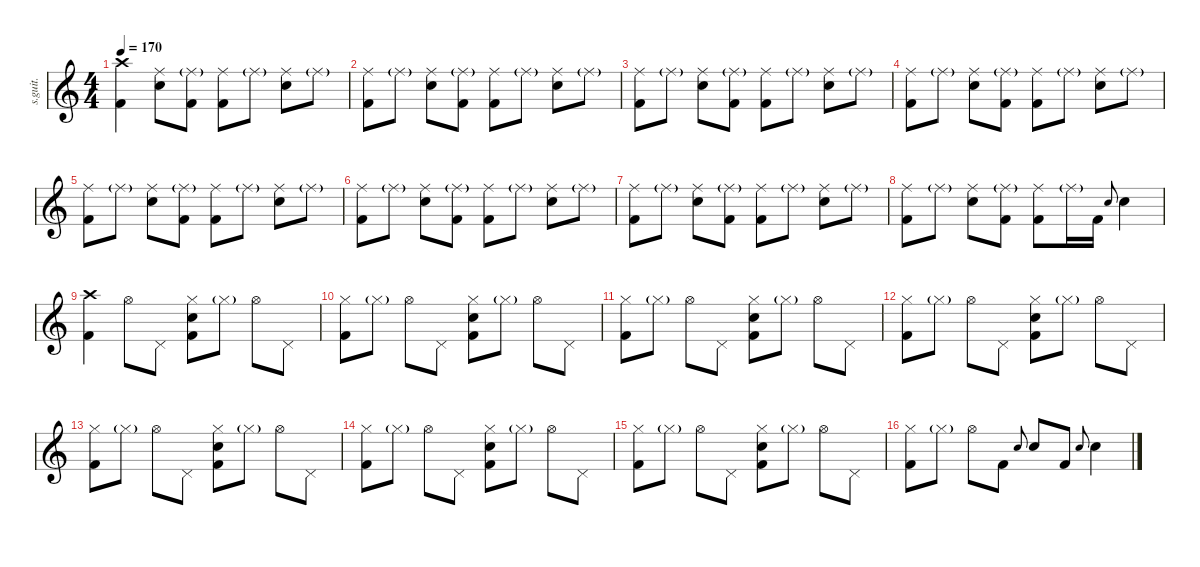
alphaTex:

\defaultSystemsLayout 4
\hideDynamics
\bracketExtendMode nobrackets
\track ("Drumkit" "s.guit.") {instrument percussion}
\staff {score}
\articulation defaults
\ts (4 4)
\tempo 170
\clef g2
\ks c
("Crash high (hit)" "Kick (hit) 2").4{lyrics (0 "") lyrics (1 "") lyrics (2 "") lyrics (3 "") lyrics (4 "") dy ff} ("Ride (middle)" "Snare (hit) 2").8{lyrics (0 "") lyrics (1 "") lyrics (2 "") lyrics (3 "") lyrics (4 "")} ("Ride (middle)"{g} "Kick (hit) 2").8{lyrics (0 "") lyrics (1 "") lyrics (2 "") lyrics (3 "") lyrics (4 "")} ("Ride (middle)" "Kick (hit) 2").8{lyrics (0 "") lyrics (1 "") lyrics (2 "") lyrics (3 "") lyrics (4 "")} "Ride (middle)"{g}.8{lyrics (0 "") lyrics (1 "") lyrics (2 "") lyrics (3 "") lyrics (4 "")} ("Ride (middle)" "Snare (hit) 2").8{lyrics (0 "") lyrics (1 "") lyrics (2 "") lyrics (3 "") lyrics (4 "")} "Ride (middle)"{g}.8{lyrics (0 "") lyrics (1 "") lyrics (2 "") lyrics (3 "") lyrics (4 "")} |
("Ride (middle)" "Kick (hit) 2").8{lyrics (0 "") lyrics (1 "") lyrics (2 "") lyrics (3 "") lyrics (4 "")} "Ride (middle)"{g}.8{lyrics (0 "") lyrics (1 "") lyrics (2 "") lyrics (3 "") lyrics (4 "")} ("Ride (middle)" "Snare (hit) 2").8{lyrics (0 "") lyrics (1 "") lyrics (2 "") lyrics (3 "") lyrics (4 "")} ("Ride (middle)"{g} "Kick (hit) 2").8{lyrics (0 "") lyrics (1 "") lyrics (2 "") lyrics (3 "") lyrics (4 "")} ("Ride (middle)" "Kick (hit) 2").8{lyrics (0 "") lyrics (1 "") lyrics (2 "") lyrics (3 "") lyrics (4 "")} "Ride (middle)"{g}.8{lyrics (0 "") lyrics (1 "") lyrics (2 "") lyrics (3 "") lyrics (4 "")} ("Ride (middle)" "Snare (hit) 2").8{lyrics (0 "") lyrics (1 "") lyrics (2 "") lyrics (3 "") lyrics (4 "")} "Ride (middle)"{g}.8{lyrics (0 "") lyrics (1 "") lyrics (2 "") lyrics (3 "") lyrics (4 "")} |
("Ride (middle)" "Kick (hit) 2").8{lyrics (0 "") lyrics (1 "") lyrics (2 "") lyrics (3 "") lyrics (4 "")} "Ride (middle)"{g}.8{lyrics (0 "") lyrics (1 "") lyrics (2 "") lyrics (3 "") lyrics (4 "")} ("Ride (middle)" "Snare (hit) 2").8{lyrics (0 "") lyrics (1 "") lyrics (2 "") lyrics (3 "") lyrics (4 "")} ("Ride (middle)"{g} "Kick (hit) 2").8{lyrics (0 "") lyrics (1 "") lyrics (2 "") lyrics (3 "") lyrics (4 "")} ("Ride (middle)" "Kick (hit) 2").8{lyrics (0 "") lyrics (1 "") lyrics (2 "") lyrics (3 "") lyrics (4 "")} "Ride (middle)"{g}.8{lyrics (0 "") lyrics (1 "") lyrics (2 "") lyrics (3 "") lyrics (4 "")} ("Ride (middle)" "Snare (hit) 2").8{lyrics (0 "") lyrics (1 "") lyrics (2 "") lyrics (3 "") lyrics (4 "")} "Ride (middle)"{g}.8{lyrics (0 "") lyrics (1 "") lyrics (2 "") lyrics (3 "") lyrics (4 "")} |
("Ride (middle)" "Kick (hit) 2").8{lyrics (0 "") lyrics (1 "") lyrics (2 "") lyrics (3 "") lyrics (4 "")} "Ride (middle)"{g}.8{lyrics (0 "") lyrics (1 "") lyrics (2 "") lyrics (3 "") lyrics (4 "")} ("Ride (middle)" "Snare (hit) 2").8{lyrics (0 "") lyrics (1 "") lyrics (2 "") lyrics (3 "") lyrics (4 "")} ("Ride (middle)"{g} "Kick (hit) 2").8{lyrics (0 "") lyrics (1 "") lyrics (2 "") lyrics (3 "") lyrics (4 "")} ("Ride (middle)" "Kick (hit) 2").8{lyrics (0 "") lyrics (1 "") lyrics (2 "") lyrics (3 "") lyrics (4 "")} "Ride (middle)"{g}.8{lyrics (0 "") lyrics (1 "") lyrics (2 "") lyrics (3 "") lyrics (4 "")} ("Ride (middle)" "Snare (hit) 2").8{lyrics (0 "") lyrics (1 "") lyrics (2 "") lyrics (3 "") lyrics (4 "")} "Ride (middle)"{g}.8{lyrics (0 "") lyrics (1 "") lyrics (2 "") lyrics (3 "") lyrics (4 "")} |
("Ride (middle)" "Kick (hit) 2").8{lyrics (0 "") lyrics (1 "") lyrics (2 "") lyrics (3 "") lyrics (4 "")} "Ride (middle)"{g}.8{lyrics (0 "") lyrics (1 "") lyrics (2 "") lyrics (3 "") lyrics (4 "")} ("Ride (middle)" "Snare (hit) 2").8{lyrics (0 "") lyrics (1 "") lyrics (2 "") lyrics (3 "") lyrics (4 "")} ("Ride (middle)"{g} "Kick (hit) 2").8{lyrics (0 "") lyrics (1 "") lyrics (2 "") lyrics (3 "") lyrics (4 "")} ("Ride (middle)" "Kick (hit) 2").8{lyrics (0 "") lyrics (1 "") lyrics (2 "") lyrics (3 "") lyrics (4 "")} "Ride (middle)"{g}.8{lyrics (0 "") lyrics (1 "") lyrics (2 "") lyrics (3 "") lyrics (4 "")} ("Ride (middle)" "Snare (hit) 2").8{lyrics (0 "") lyrics (1 "") lyrics (2 "") lyrics (3 "") lyrics (4 "")} "Ride (middle)"{g}.8{lyrics (0 "") lyrics (1 "") lyrics (2 "") lyrics (3 "") lyrics (4 "")} |
("Ride (middle)" "Kick (hit) 2").8{lyrics (0 "") lyrics (1 "") lyrics (2 "") lyrics (3 "") lyrics (4 "")} "Ride (middle)"{g}.8{lyrics (0 "") lyrics (1 "") lyrics (2 "") lyrics (3 "") lyrics (4 "")} ("Ride (middle)" "Snare (hit) 2").8{lyrics (0 "") lyrics (1 "") lyrics (2 "") lyrics (3 "") lyrics (4 "")} ("Ride (middle)"{g} "Kick (hit) 2").8{lyrics (0 "") lyrics (1 "") lyrics (2 "") lyrics (3 "") lyrics (4 "")} ("Ride (middle)" "Kick (hit) 2").8{lyrics (0 "") lyrics (1 "") lyrics (2 "") lyrics (3 "") lyrics (4 "")} "Ride (middle)"{g}.8{lyrics (0 "") lyrics (1 "") lyrics (2 "") lyrics (3 "") lyrics (4 "")} ("Ride (middle)" "Snare (hit) 2").8{lyrics (0 "") lyrics (1 "") lyrics (2 "") lyrics (3 "") lyrics (4 "")} "Ride (middle)"{g}.8{lyrics (0 "") lyrics (1 "") lyrics (2 "") lyrics (3 "") lyrics (4 "")} |
("Ride (middle)" "Kick (hit) 2").8{lyrics (0 "") lyrics (1 "") lyrics (2 "") lyrics (3 "") lyrics (4 "")} "Ride (middle)"{g}.8{lyrics (0 "") lyrics (1 "") lyrics (2 "") lyrics (3 "") lyrics (4 "")} ("Ride (middle)" "Snare (hit) 2").8{lyrics (0 "") lyrics (1 "") lyrics (2 "") lyrics (3 "") lyrics (4 "")} ("Ride (middle)"{g} "Kick (hit) 2").8{lyrics (0 "") lyrics (1 "") lyrics (2 "") lyrics (3 "") lyrics (4 "")} ("Ride (middle)" "Kick (hit) 2").8{lyrics (0 "") lyrics (1 "") lyrics (2 "") lyrics (3 "") lyrics (4 "")} "Ride (middle)"{g}.8{lyrics (0 "") lyrics (1 "") lyrics (2 "") lyrics (3 "") lyrics (4 "")} ("Ride (middle)" "Snare (hit) 2").8{lyrics (0 "") lyrics (1 "") lyrics (2 "") lyrics (3 "") lyrics (4 "")} "Ride (middle)"{g}.8{lyrics (0 "") lyrics (1 "") lyrics (2 "") lyrics (3 "") lyrics (4 "")} |
("Ride (middle)" "Kick (hit) 2").8{lyrics (0 "") lyrics (1 "") lyrics (2 "") lyrics (3 "") lyrics (4 "")} "Ride (middle)"{g}.8{lyrics (0 "") lyrics (1 "") lyrics (2 "") lyrics (3 "") lyrics (4 "")} ("Ride (middle)" "Snare (hit) 2").8{lyrics (0 "") lyrics (1 "") lyrics (2 "") lyrics (3 "") lyrics (4 "")} ("Ride (middle)"{g} "Kick (hit) 2").8{lyrics (0 "") lyrics (1 "") lyrics (2 "") lyrics (3 "") lyrics (4 "")} ("Ride (middle)" "Kick (hit) 2").8{lyrics (0 "") lyrics (1 "") lyrics (2 "") lyrics (3 "") lyrics (4 "")} "Ride (middle)"{g}.16{lyrics (0 "") lyrics (1 "") lyrics (2 "") lyrics (3 "") lyrics (4 "")} "Kick (hit) 2".16{lyrics (0 "") lyrics (1 "") lyrics (2 "") lyrics (3 "") lyrics (4 "")} "Snare (hit) 2".8{lyrics (0 "") lyrics (1 "") lyrics (2 "") lyrics (3 "") lyrics (4 "") gr onbeat} "Snare (hit) 2".4{lyrics (0 "") lyrics (1 "") lyrics (2 "") lyrics (3 "") lyrics (4 "")} |
("Crash high (hit)" "Kick (hit) 2").4{lyrics (0 "") lyrics (1 "") lyrics (2 "") lyrics (3 "") lyrics (4 "")} "Hi-Hat (open)".8{lyrics (0 "") lyrics (1 "") lyrics (2 "") lyrics (3 "") lyrics (4 "")} "Pedal Hi-Hat (hit)".8{lyrics (0 "") lyrics (1 "") lyrics (2 "") lyrics (3 "") lyrics (4 "")} ("Snare (hit) 2" "Hi-Hat (closed)" "Kick (hit) 2").8{lyrics (0 "") lyrics (1 "") lyrics (2 "") lyrics (3 "") lyrics (4 "")} "Hi-Hat (closed)"{g}.8{lyrics (0 "") lyrics (1 "") lyrics (2 "") lyrics (3 "") lyrics (4 "")} "Hi-Hat (open)".8{lyrics (0 "") lyrics (1 "") lyrics (2 "") lyrics (3 "") lyrics (4 "")} "Pedal Hi-Hat (hit)".8{lyrics (0 "") lyrics (1 "") lyrics (2 "") lyrics (3 "") lyrics (4 "")} |
("Hi-Hat (closed)" "Kick (hit) 2").8{lyrics (0 "") lyrics (1 "") lyrics (2 "") lyrics (3 "") lyrics (4 "")} "Hi-Hat (closed)"{g}.8{lyrics (0 "") lyrics (1 "") lyrics (2 "") lyrics (3 "") lyrics (4 "")} "Hi-Hat (open)".8{lyrics (0 "") lyrics (1 "") lyrics (2 "") lyrics (3 "") lyrics (4 "")} "Pedal Hi-Hat (hit)".8{lyrics (0 "") lyrics (1 "") lyrics (2 "") lyrics (3 "") lyrics (4 "")} ("Snare (hit) 2" "Hi-Hat (closed)" "Kick (hit) 2").8{lyrics (0 "") lyrics (1 "") lyrics (2 "") lyrics (3 "") lyrics (4 "")} "Hi-Hat (closed)"{g}.8{lyrics (0 "") lyrics (1 "") lyrics (2 "") lyrics (3 "") lyrics (4 "")} "Hi-Hat (open)".8{lyrics (0 "") lyrics (1 "") lyrics (2 "") lyrics (3 "") lyrics (4 "")} "Pedal Hi-Hat (hit)".8{lyrics (0 "") lyrics (1 "") lyrics (2 "") lyrics (3 "") lyrics (4 "")} |
("Hi-Hat (closed)" "Kick (hit) 2").8{lyrics (0 "") lyrics (1 "") lyrics (2 "") lyrics (3 "") lyrics (4 "")} "Hi-Hat (closed)"{g}.8{lyrics (0 "") lyrics (1 "") lyrics (2 "") lyrics (3 "") lyrics (4 "")} "Hi-Hat (open)".8{lyrics (0 "") lyrics (1 "") lyrics (2 "") lyrics (3 "") lyrics (4 "")} "Pedal Hi-Hat (hit)".8{lyrics (0 "") lyrics (1 "") lyrics (2 "") lyrics (3 "") lyrics (4 "")} ("Snare (hit) 2" "Hi-Hat (closed)" "Kick (hit) 2").8{lyrics (0 "") lyrics (1 "") lyrics (2 "") lyrics (3 "") lyrics (4 "")} "Hi-Hat (closed)"{g}.8{lyrics (0 "") lyrics (1 "") lyrics (2 "") lyrics (3 "") lyrics (4 "")} "Hi-Hat (open)".8{lyrics (0 "") lyrics (1 "") lyrics (2 "") lyrics (3 "") lyrics (4 "")} "Pedal Hi-Hat (hit)".8{lyrics (0 "") lyrics (1 "") lyrics (2 "") lyrics (3 "") lyrics (4 "")} |
("Hi-Hat (closed)" "Kick (hit) 2").8{lyrics (0 "") lyrics (1 "") lyrics (2 "") lyrics (3 "") lyrics (4 "")} "Hi-Hat (closed)"{g}.8{lyrics (0 "") lyrics (1 "") lyrics (2 "") lyrics (3 "") lyrics (4 "")} "Hi-Hat (open)".8{lyrics (0 "") lyrics (1 "") lyrics (2 "") lyrics (3 "") lyrics (4 "")} "Pedal Hi-Hat (hit)".8{lyrics (0 "") lyrics (1 "") lyrics (2 "") lyrics (3 "") lyrics (4 "")} ("Snare (hit) 2" "Hi-Hat (closed)" "Kick (hit) 2").8{lyrics (0 "") lyrics (1 "") lyrics (2 "") lyrics (3 "") lyrics (4 "")} "Hi-Hat (closed)"{g}.8{lyrics (0 "") lyrics (1 "") lyrics (2 "") lyrics (3 "") lyrics (4 "")} "Hi-Hat (open)".8{lyrics (0 "") lyrics (1 "") lyrics (2 "") lyrics (3 "") lyrics (4 "")} "Pedal Hi-Hat (hit)".8{lyrics (0 "") lyrics (1 "") lyrics (2 "") lyrics (3 "") lyrics (4 "")} |
("Hi-Hat (closed)" "Kick (hit) 2").8{lyrics (0 "") lyrics (1 "") lyrics (2 "") lyrics (3 "") lyrics (4 "")} "Hi-Hat (closed)"{g}.8{lyrics (0 "") lyrics (1 "") lyrics (2 "") lyrics (3 "") lyrics (4 "")} "Hi-Hat (open)".8{lyrics (0 "") lyrics (1 "") lyrics (2 "") lyrics (3 "") lyrics (4 "")} "Pedal Hi-Hat (hit)".8{lyrics (0 "") lyrics (1 "") lyrics (2 "") lyrics (3 "") lyrics (4 "")} ("Snare (hit) 2" "Hi-Hat (closed)" "Kick (hit) 2").8{lyrics (0 "") lyrics (1 "") lyrics (2 "") lyrics (3 "") lyrics (4 "")} "Hi-Hat (closed)"{g}.8{lyrics (0 "") lyrics (1 "") lyrics (2 "") lyrics (3 "") lyrics (4 "")} "Hi-Hat (open)".8{lyrics (0 "") lyrics (1 "") lyrics (2 "") lyrics (3 "") lyrics (4 "")} "Pedal Hi-Hat (hit)".8{lyrics (0 "") lyrics (1 "") lyrics (2 "") lyrics (3 "") lyrics (4 "")} |
("Hi-Hat (closed)" "Kick (hit) 2").8{lyrics (0 "") lyrics (1 "") lyrics (2 "") lyrics (3 "") lyrics (4 "")} "Hi-Hat (closed)"{g}.8{lyrics (0 "") lyrics (1 "") lyrics (2 "") lyrics (3 "") lyrics (4 "")} "Hi-Hat (open)".8{lyrics (0 "") lyrics (1 "") lyrics (2 "") lyrics (3 "") lyrics (4 "")} "Pedal Hi-Hat (hit)".8{lyrics (0 "") lyrics (1 "") lyrics (2 "") lyrics (3 "") lyrics (4 "")} ("Snare (hit) 2" "Hi-Hat (closed)" "Kick (hit) 2").8{lyrics (0 "") lyrics (1 "") lyrics (2 "") lyrics (3 "") lyrics (4 "")} "Hi-Hat (closed)"{g}.8{lyrics (0 "") lyrics (1 "") lyrics (2 "") lyrics (3 "") lyrics (4 "")} "Hi-Hat (open)".8{lyrics (0 "") lyrics (1 "") lyrics (2 "") lyrics (3 "") lyrics (4 "")} "Pedal Hi-Hat (hit)".8{lyrics (0 "") lyrics (1 "") lyrics (2 "") lyrics (3 "") lyrics (4 "")} |
("Hi-Hat (closed)" "Kick (hit) 2").8{lyrics (0 "") lyrics (1 "") lyrics (2 "") lyrics (3 "") lyrics (4 "")} "Hi-Hat (closed)"{g}.8{lyrics (0 "") lyrics (1 "") lyrics (2 "") lyrics (3 "") lyrics (4 "")} "Hi-Hat (open)".8{lyrics (0 "") lyrics (1 "") lyrics (2 "") lyrics (3 "") lyrics (4 "")} "Pedal Hi-Hat (hit)".8{lyrics (0 "") lyrics (1 "") lyrics (2 "") lyrics (3 "") lyrics (4 "")} ("Snare (hit) 2" "Hi-Hat (closed)" "Kick (hit) 2").8{lyrics (0 "") lyrics (1 "") lyrics (2 "") lyrics (3 "") lyrics (4 "")} "Hi-Hat (closed)"{g}.8{lyrics (0 "") lyrics (1 "") lyrics (2 "") lyrics (3 "") lyrics (4 "")} "Hi-Hat (open)".8{lyrics (0 "") lyrics (1 "") lyrics (2 "") lyrics (3 "") lyrics (4 "")} "Pedal Hi-Hat (hit)".8{lyrics (0 "") lyrics (1 "") lyrics (2 "") lyrics (3 "") lyrics (4 "")} |
("Hi-Hat (closed)" "Kick (hit) 2").8{lyrics (0 "") lyrics (1 "") lyrics (2 "") lyrics (3 "") lyrics (4 "")} "Hi-Hat (closed)"{g}.8{lyrics (0 "") lyrics (1 "") lyrics (2 "") lyrics (3 "") lyrics (4 "")} "Hi-Hat (open)".8{lyrics (0 "") lyrics (1 "") lyrics (2 "") lyrics (3 "") lyrics (4 "")} "Kick (hit) 2".8{lyrics (0 "") lyrics (1 "") lyrics (2 "") lyrics (3 "") lyrics (4 "")} "Snare (hit) 2".8{lyrics (0 "") lyrics (1 "") lyrics (2 "") lyrics (3 "") lyrics (4 "") gr onbeat} "Snare (hit) 2".8{lyrics (0 "") lyrics (1 "") lyrics (2 "") lyrics (3 "") lyrics (4 "")} "Kick (hit) 2".8{lyrics (0 "") lyrics (1 "") lyrics (2 "") lyrics (3 "") lyrics (4 "")} "Snare (hit) 2".8{lyrics (0 "") lyrics (1 "") lyrics (2 "") lyrics (3 "") lyrics (4 "") gr onbeat} "Snare (hit) 2".4{lyrics (0 "") lyrics (1 "") lyrics (2 "") lyrics (3 "") lyrics (4 "")}
